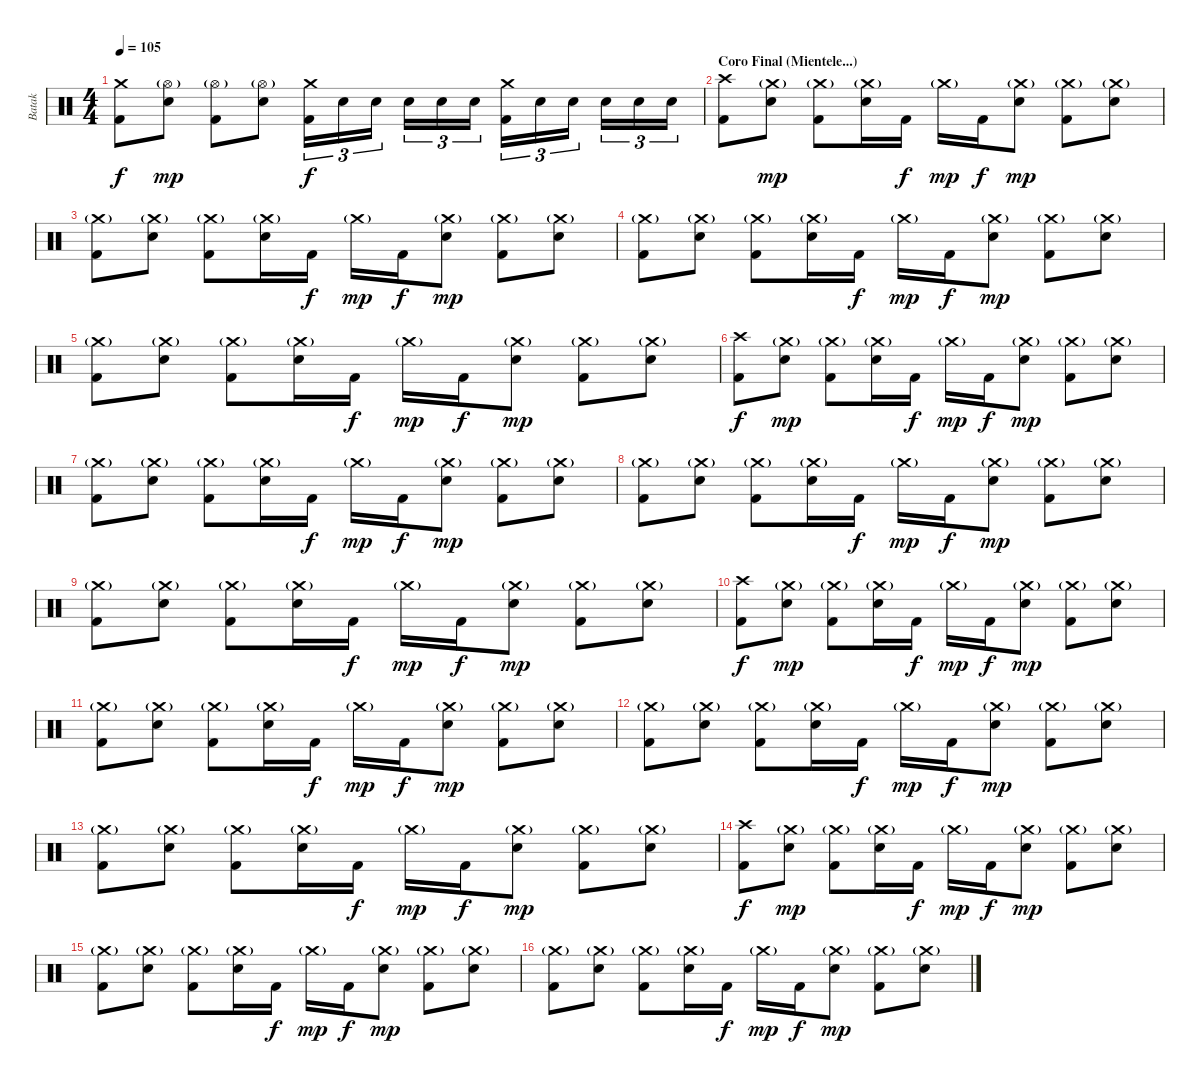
\track ("Batak" "Batak") {instrument percussion}
\staff {score}
\articulation defaults
\ts (4 4)
\tempo 105
\clef neutral
\ks c
("Crash medium (hit)" "Kick (hit) 2").8{dy f} ("Hi-Hat (open)"{g} "Electric Snare (hit)").8{dy mp} ("Hi-Hat (open)"{g} "Kick (hit) 2").8 ("Hi-Hat (open)"{g} "Electric Snare (hit)").8 ("Crash medium (hit)" "Kick (hit) 2").16{tu (3 2) dy f} "Electric Snare (hit)".16{tu (3 2)} "Electric Snare (hit)".16{tu (3 2)} "Electric Snare (hit)".16{tu (3 2)} "Electric Snare (hit)".16{tu (3 2)} "Electric Snare (hit)".16{tu (3 2)} ("Crash medium (hit)" "Kick (hit) 2").16{tu (3 2)} "Electric Snare (hit)".16{tu (3 2)} "Electric Snare (hit)".16{tu (3 2)} "Electric Snare (hit)".16{tu (3 2)} "Electric Snare (hit)".16{tu (3 2)} "Electric Snare (hit)".16{tu (3 2)} |
\section ("" "Coro Final (Mientele...)")
("Crash high (hit)" "Kick (hit) 2").8 ("Crash medium (hit)"{g} "Electric Snare (hit)").8{dy mp} ("Crash medium (hit)"{g} "Kick (hit) 2").8 ("Crash medium (hit)"{g} "Electric Snare (hit)").16 "Kick (hit) 2".16{dy f} "Crash medium (hit)"{g}.16{dy mp} "Kick (hit) 2".16{dy f} ("Crash medium (hit)"{g} "Electric Snare (hit)").8{dy mp} ("Crash medium (hit)"{g} "Kick (hit) 2").8 ("Crash medium (hit)"{g} "Electric Snare (hit)").8 |
("Crash medium (hit)"{g} "Kick (hit) 2").8 ("Crash medium (hit)"{g} "Electric Snare (hit)").8 ("Crash medium (hit)"{g} "Kick (hit) 2").8 ("Crash medium (hit)"{g} "Electric Snare (hit)").16 "Kick (hit) 2".16{dy f} "Crash medium (hit)"{g}.16{dy mp} "Kick (hit) 2".16{dy f} ("Crash medium (hit)"{g} "Electric Snare (hit)").8{dy mp} ("Crash medium (hit)"{g} "Kick (hit) 2").8 ("Crash medium (hit)"{g} "Electric Snare (hit)").8 |
("Crash medium (hit)"{g} "Kick (hit) 2").8 ("Crash medium (hit)"{g} "Electric Snare (hit)").8 ("Crash medium (hit)"{g} "Kick (hit) 2").8 ("Crash medium (hit)"{g} "Electric Snare (hit)").16 "Kick (hit) 2".16{dy f} "Crash medium (hit)"{g}.16{dy mp} "Kick (hit) 2".16{dy f} ("Crash medium (hit)"{g} "Electric Snare (hit)").8{dy mp} ("Crash medium (hit)"{g} "Kick (hit) 2").8 ("Crash medium (hit)"{g} "Electric Snare (hit)").8 |
("Crash medium (hit)"{g} "Kick (hit) 2").8 ("Crash medium (hit)"{g} "Electric Snare (hit)").8 ("Crash medium (hit)"{g} "Kick (hit) 2").8 ("Crash medium (hit)"{g} "Electric Snare (hit)").16 "Kick (hit) 2".16{dy f} "Crash medium (hit)"{g}.16{dy mp} "Kick (hit) 2".16{dy f} ("Crash medium (hit)"{g} "Electric Snare (hit)").8{dy mp} ("Crash medium (hit)"{g} "Kick (hit) 2").8 ("Crash medium (hit)"{g} "Electric Snare (hit)").8 |
("Crash high (hit)" "Kick (hit) 2").8{dy f} ("Crash medium (hit)"{g} "Electric Snare (hit)").8{dy mp} ("Crash medium (hit)"{g} "Kick (hit) 2").8 ("Crash medium (hit)"{g} "Electric Snare (hit)").16 "Kick (hit) 2".16{dy f} "Crash medium (hit)"{g}.16{dy mp} "Kick (hit) 2".16{dy f} ("Crash medium (hit)"{g} "Electric Snare (hit)").8{dy mp} ("Crash medium (hit)"{g} "Kick (hit) 2").8 ("Crash medium (hit)"{g} "Electric Snare (hit)").8 |
("Crash medium (hit)"{g} "Kick (hit) 2").8 ("Crash medium (hit)"{g} "Electric Snare (hit)").8 ("Crash medium (hit)"{g} "Kick (hit) 2").8 ("Crash medium (hit)"{g} "Electric Snare (hit)").16 "Kick (hit) 2".16{dy f} "Crash medium (hit)"{g}.16{dy mp} "Kick (hit) 2".16{dy f} ("Crash medium (hit)"{g} "Electric Snare (hit)").8{dy mp} ("Crash medium (hit)"{g} "Kick (hit) 2").8 ("Crash medium (hit)"{g} "Electric Snare (hit)").8 |
("Crash medium (hit)"{g} "Kick (hit) 2").8 ("Crash medium (hit)"{g} "Electric Snare (hit)").8 ("Crash medium (hit)"{g} "Kick (hit) 2").8 ("Crash medium (hit)"{g} "Electric Snare (hit)").16 "Kick (hit) 2".16{dy f} "Crash medium (hit)"{g}.16{dy mp} "Kick (hit) 2".16{dy f} ("Crash medium (hit)"{g} "Electric Snare (hit)").8{dy mp} ("Crash medium (hit)"{g} "Kick (hit) 2").8 ("Crash medium (hit)"{g} "Electric Snare (hit)").8 |
("Crash medium (hit)"{g} "Kick (hit) 2").8 ("Crash medium (hit)"{g} "Electric Snare (hit)").8 ("Crash medium (hit)"{g} "Kick (hit) 2").8 ("Crash medium (hit)"{g} "Electric Snare (hit)").16 "Kick (hit) 2".16{dy f} "Crash medium (hit)"{g}.16{dy mp} "Kick (hit) 2".16{dy f} ("Crash medium (hit)"{g} "Electric Snare (hit)").8{dy mp} ("Crash medium (hit)"{g} "Kick (hit) 2").8 ("Crash medium (hit)"{g} "Electric Snare (hit)").8 |
("Crash high (hit)" "Kick (hit) 2").8{dy f} ("Crash medium (hit)"{g} "Electric Snare (hit)").8{dy mp} ("Crash medium (hit)"{g} "Kick (hit) 2").8 ("Crash medium (hit)"{g} "Electric Snare (hit)").16 "Kick (hit) 2".16{dy f} "Crash medium (hit)"{g}.16{dy mp} "Kick (hit) 2".16{dy f} ("Crash medium (hit)"{g} "Electric Snare (hit)").8{dy mp} ("Crash medium (hit)"{g} "Kick (hit) 2").8 ("Crash medium (hit)"{g} "Electric Snare (hit)").8 |
("Crash medium (hit)"{g} "Kick (hit) 2").8 ("Crash medium (hit)"{g} "Electric Snare (hit)").8 ("Crash medium (hit)"{g} "Kick (hit) 2").8 ("Crash medium (hit)"{g} "Electric Snare (hit)").16 "Kick (hit) 2".16{dy f} "Crash medium (hit)"{g}.16{dy mp} "Kick (hit) 2".16{dy f} ("Crash medium (hit)"{g} "Electric Snare (hit)").8{dy mp} ("Crash medium (hit)"{g} "Kick (hit) 2").8 ("Crash medium (hit)"{g} "Electric Snare (hit)").8 |
("Crash medium (hit)"{g} "Kick (hit) 2").8 ("Crash medium (hit)"{g} "Electric Snare (hit)").8 ("Crash medium (hit)"{g} "Kick (hit) 2").8 ("Crash medium (hit)"{g} "Electric Snare (hit)").16 "Kick (hit) 2".16{dy f} "Crash medium (hit)"{g}.16{dy mp} "Kick (hit) 2".16{dy f} ("Crash medium (hit)"{g} "Electric Snare (hit)").8{dy mp} ("Crash medium (hit)"{g} "Kick (hit) 2").8 ("Crash medium (hit)"{g} "Electric Snare (hit)").8 |
("Crash medium (hit)"{g} "Kick (hit) 2").8 ("Crash medium (hit)"{g} "Electric Snare (hit)").8 ("Crash medium (hit)"{g} "Kick (hit) 2").8 ("Crash medium (hit)"{g} "Electric Snare (hit)").16 "Kick (hit) 2".16{dy f} "Crash medium (hit)"{g}.16{dy mp} "Kick (hit) 2".16{dy f} ("Crash medium (hit)"{g} "Electric Snare (hit)").8{dy mp} ("Crash medium (hit)"{g} "Kick (hit) 2").8 ("Crash medium (hit)"{g} "Electric Snare (hit)").8 |
("Crash high (hit)" "Kick (hit) 2").8{dy f} ("Crash medium (hit)"{g} "Electric Snare (hit)").8{dy mp} ("Crash medium (hit)"{g} "Kick (hit) 2").8 ("Crash medium (hit)"{g} "Electric Snare (hit)").16 "Kick (hit) 2".16{dy f} "Crash medium (hit)"{g}.16{dy mp} "Kick (hit) 2".16{dy f} ("Crash medium (hit)"{g} "Electric Snare (hit)").8{dy mp} ("Crash medium (hit)"{g} "Kick (hit) 2").8 ("Crash medium (hit)"{g} "Electric Snare (hit)").8 |
("Crash medium (hit)"{g} "Kick (hit) 2").8 ("Crash medium (hit)"{g} "Electric Snare (hit)").8 ("Crash medium (hit)"{g} "Kick (hit) 2").8 ("Crash medium (hit)"{g} "Electric Snare (hit)").16 "Kick (hit) 2".16{dy f} "Crash medium (hit)"{g}.16{dy mp} "Kick (hit) 2".16{dy f} ("Crash medium (hit)"{g} "Electric Snare (hit)").8{dy mp} ("Crash medium (hit)"{g} "Kick (hit) 2").8 ("Crash medium (hit)"{g} "Electric Snare (hit)").8 |
("Crash medium (hit)"{g} "Kick (hit) 2").8 ("Crash medium (hit)"{g} "Electric Snare (hit)").8 ("Crash medium (hit)"{g} "Kick (hit) 2").8 ("Crash medium (hit)"{g} "Electric Snare (hit)").16 "Kick (hit) 2".16{dy f} "Crash medium (hit)"{g}.16{dy mp} "Kick (hit) 2".16{dy f} ("Crash medium (hit)"{g} "Electric Snare (hit)").8{dy mp} ("Crash medium (hit)"{g} "Kick (hit) 2").8 ("Crash medium (hit)"{g} "Electric Snare (hit)").8
